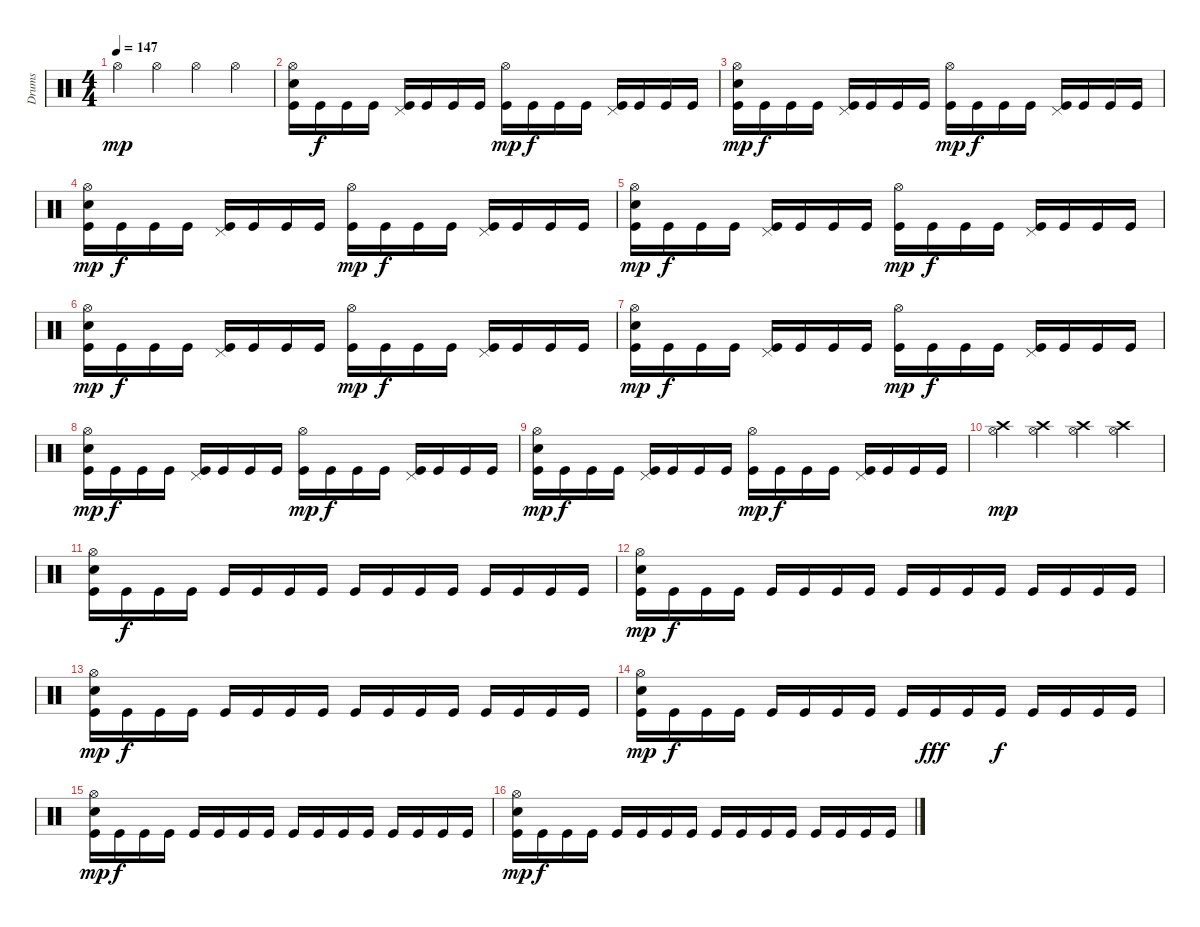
\track ("Drums" "Drums") {instrument percussion}
\staff {score}
\articulation defaults
\ts (4 4)
\tempo 147
\clef neutral
\ks c "Hi-Hat (open)".4{dy mp} "Hi-Hat (open)".4 "Hi-Hat (open)".4 "Hi-Hat (open)".4
|
("Electric Snare (hit)" "Hi-Hat (open)" "Kick (hit)").16 "Kick (hit)".16{dy f} "Kick (hit)".16 "Kick (hit)".16 ("Pedal Hi-Hat (hit)" "Kick (hit)").16 "Kick (hit)".16 "Kick (hit)".16 "Kick (hit)".16 ("Hi-Hat (open)" "Kick (hit)").16{dy mp} "Kick (hit)".16{dy f} "Kick (hit)".16 "Kick (hit)".16 ("Pedal Hi-Hat (hit)" "Kick (hit)").16 "Kick (hit)".16 "Kick (hit)".16 "Kick (hit)".16 |
("Electric Snare (hit)" "Hi-Hat (open)" "Kick (hit)").16{dy mp} "Kick (hit)".16{dy f} "Kick (hit)".16 "Kick (hit)".16 ("Pedal Hi-Hat (hit)" "Kick (hit)").16 "Kick (hit)".16 "Kick (hit)".16 "Kick (hit)".16 ("Hi-Hat (open)" "Kick (hit)").16{dy mp} "Kick (hit)".16{dy f} "Kick (hit)".16 "Kick (hit)".16 ("Pedal Hi-Hat (hit)" "Kick (hit)").16 "Kick (hit)".16 "Kick (hit)".16 "Kick (hit)".16 |
("Electric Snare (hit)" "Hi-Hat (open)" "Kick (hit)").16{dy mp} "Kick (hit)".16{dy f} "Kick (hit)".16 "Kick (hit)".16 ("Pedal Hi-Hat (hit)" "Kick (hit)").16 "Kick (hit)".16 "Kick (hit)".16 "Kick (hit)".16 ("Hi-Hat (open)" "Kick (hit)").16{dy mp} "Kick (hit)".16{dy f} "Kick (hit)".16 "Kick (hit)".16 ("Pedal Hi-Hat (hit)" "Kick (hit)").16 "Kick (hit)".16 "Kick (hit)".16 "Kick (hit)".16 |
("Electric Snare (hit)" "Hi-Hat (open)" "Kick (hit)").16{dy mp} "Kick (hit)".16{dy f} "Kick (hit)".16 "Kick (hit)".16 ("Pedal Hi-Hat (hit)" "Kick (hit)").16 "Kick (hit)".16 "Kick (hit)".16 "Kick (hit)".16 ("Hi-Hat (open)" "Kick (hit)").16{dy mp} "Kick (hit)".16{dy f} "Kick (hit)".16 "Kick (hit)".16 ("Pedal Hi-Hat (hit)" "Kick (hit)").16 "Kick (hit)".16 "Kick (hit)".16 "Kick (hit)".16 |
("Electric Snare (hit)" "Hi-Hat (open)" "Kick (hit)").16{dy mp} "Kick (hit)".16{dy f} "Kick (hit)".16 "Kick (hit)".16 ("Pedal Hi-Hat (hit)" "Kick (hit)").16 "Kick (hit)".16 "Kick (hit)".16 "Kick (hit)".16 ("Hi-Hat (open)" "Kick (hit)").16{dy mp} "Kick (hit)".16{dy f} "Kick (hit)".16 "Kick (hit)".16 ("Pedal Hi-Hat (hit)" "Kick (hit)").16 "Kick (hit)".16 "Kick (hit)".16 "Kick (hit)".16 |
("Electric Snare (hit)" "Hi-Hat (open)" "Kick (hit)").16{dy mp} "Kick (hit)".16{dy f} "Kick (hit)".16 "Kick (hit)".16 ("Pedal Hi-Hat (hit)" "Kick (hit)").16 "Kick (hit)".16 "Kick (hit)".16 "Kick (hit)".16 ("Hi-Hat (open)" "Kick (hit)").16{dy mp} "Kick (hit)".16{dy f} "Kick (hit)".16 "Kick (hit)".16 ("Pedal Hi-Hat (hit)" "Kick (hit)").16 "Kick (hit)".16 "Kick (hit)".16 "Kick (hit)".16 |
("Electric Snare (hit)" "Hi-Hat (open)" "Kick (hit)").16{dy mp} "Kick (hit)".16{dy f} "Kick (hit)".16 "Kick (hit)".16 ("Pedal Hi-Hat (hit)" "Kick (hit)").16 "Kick (hit)".16 "Kick (hit)".16 "Kick (hit)".16 ("Hi-Hat (open)" "Kick (hit)").16{dy mp} "Kick (hit)".16{dy f} "Kick (hit)".16 "Kick (hit)".16 ("Pedal Hi-Hat (hit)" "Kick (hit)").16 "Kick (hit)".16 "Kick (hit)".16 "Kick (hit)".16 |
("Electric Snare (hit)" "Hi-Hat (open)" "Kick (hit)").16{dy mp} "Kick (hit)".16{dy f} "Kick (hit)".16 "Kick (hit)".16 ("Pedal Hi-Hat (hit)" "Kick (hit)").16 "Kick (hit)".16 "Kick (hit)".16 "Kick (hit)".16 ("Hi-Hat (open)" "Kick (hit)").16{dy mp} "Kick (hit)".16{dy f} "Kick (hit)".16 "Kick (hit)".16 ("Pedal Hi-Hat (hit)" "Kick (hit)").16 "Kick (hit)".16 "Kick (hit)".16 "Kick (hit)".16 |
("Hi-Hat (open)" "Crash high (hit)").4{dy mp} ("Hi-Hat (open)" "Crash high (hit)").4 ("Hi-Hat (open)" "Crash high (hit)").4 ("Hi-Hat (open)" "Crash high (hit)").4 |
("Electric Snare (hit)" "Hi-Hat (open)" "Kick (hit)").16 "Kick (hit)".16{dy f} "Kick (hit)".16 "Kick (hit)".16 "Kick (hit)".16 "Kick (hit)".16 "Kick (hit)".16 "Kick (hit)".16 "Kick (hit)".16 "Kick (hit)".16 "Kick (hit)".16 "Kick (hit)".16 "Kick (hit)".16 "Kick (hit)".16 "Kick (hit)".16 "Kick (hit)".16 |
("Electric Snare (hit)" "Hi-Hat (open)" "Kick (hit)").16{dy mp} "Kick (hit)".16{dy f} "Kick (hit)".16 "Kick (hit)".16 "Kick (hit)".16 "Kick (hit)".16 "Kick (hit)".16 "Kick (hit)".16 "Kick (hit)".16 "Kick (hit)".16 "Kick (hit)".16 "Kick (hit)".16 "Kick (hit)".16 "Kick (hit)".16 "Kick (hit)".16 "Kick (hit)".16 |
("Electric Snare (hit)" "Hi-Hat (open)" "Kick (hit)").16{dy mp} "Kick (hit)".16{dy f} "Kick (hit)".16 "Kick (hit)".16 "Kick (hit)".16 "Kick (hit)".16 "Kick (hit)".16 "Kick (hit)".16 "Kick (hit)".16 "Kick (hit)".16 "Kick (hit)".16 "Kick (hit)".16 "Kick (hit)".16 "Kick (hit)".16 "Kick (hit)".16 "Kick (hit)".16 |
("Electric Snare (hit)" "Hi-Hat (open)" "Kick (hit)").16{dy mp} "Kick (hit)".16{dy f} "Kick (hit)".16 "Kick (hit)".16 "Kick (hit)".16 "Kick (hit)".16 "Kick (hit)".16 "Kick (hit)".16 "Kick (hit)".16 "Kick (hit)".16{dy fff} "Kick (hit)".16 "Kick (hit)".16{dy f} "Kick (hit)".16 "Kick (hit)".16 "Kick (hit)".16 "Kick (hit)".16 |
("Electric Snare (hit)" "Hi-Hat (open)" "Kick (hit)").16{dy mp} "Kick (hit)".16{dy f} "Kick (hit)".16 "Kick (hit)".16 "Kick (hit)".16 "Kick (hit)".16 "Kick (hit)".16 "Kick (hit)".16 "Kick (hit)".16 "Kick (hit)".16 "Kick (hit)".16 "Kick (hit)".16 "Kick (hit)".16 "Kick (hit)".16 "Kick (hit)".16 "Kick (hit)".16 |
("Electric Snare (hit)" "Hi-Hat (open)" "Kick (hit)").16{dy mp} "Kick (hit)".16{dy f} "Kick (hit)".16 "Kick (hit)".16 "Kick (hit)".16 "Kick (hit)".16 "Kick (hit)".16 "Kick (hit)".16 "Kick (hit)".16 "Kick (hit)".16 "Kick (hit)".16 "Kick (hit)".16 "Kick (hit)".16 "Kick (hit)".16 "Kick (hit)".16 "Kick (hit)".16
